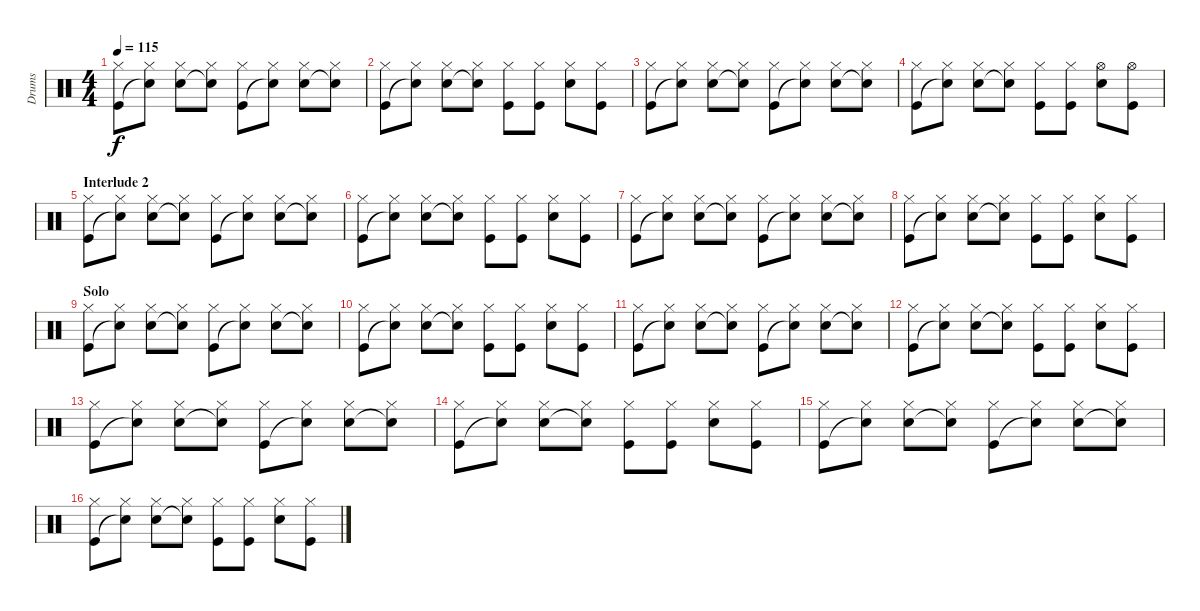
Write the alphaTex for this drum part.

\track ("Drums" "Drums") {instrument percussion}
\staff {score}
\articulation defaults
\ts (4 4)
\tempo 115
\clef neutral
\ks c
("Hi-Hat (closed)" "Kick (hit)").8{dy f} ("Hi-Hat (closed)" "Snare (hit)"{t}).8 ("Hi-Hat (closed)" "Snare (hit) 2").8 ("Hi-Hat (closed)" "Snare (hit)"{t}).8 ("Hi-Hat (closed)" "Kick (hit)").8 ("Hi-Hat (closed)" "Snare (hit)"{t}).8 ("Hi-Hat (closed)" "Snare (hit) 2").8 ("Hi-Hat (closed)" "Snare (hit)"{t}).8 |
("Hi-Hat (closed)" "Kick (hit)").8 ("Hi-Hat (closed)" "Snare (hit)"{t}).8 ("Hi-Hat (closed)" "Snare (hit) 2").8 ("Hi-Hat (closed)" "Snare (hit)"{t}).8 ("Hi-Hat (closed)" "Kick (hit)").8 ("Hi-Hat (closed)" "Kick (hit)").8 ("Hi-Hat (closed)" "Snare (hit) 2").8 ("Hi-Hat (closed)" "Kick (hit)").8 |
("Hi-Hat (closed)" "Kick (hit)").8 ("Hi-Hat (closed)" "Snare (hit)"{t}).8 ("Hi-Hat (closed)" "Snare (hit) 2").8 ("Hi-Hat (closed)" "Snare (hit)"{t}).8 ("Hi-Hat (closed)" "Kick (hit)").8 ("Hi-Hat (closed)" "Snare (hit)"{t}).8 ("Hi-Hat (closed)" "Snare (hit) 2").8 ("Hi-Hat (closed)" "Snare (hit)"{t}).8 |
("Hi-Hat (closed)" "Kick (hit)").8 ("Hi-Hat (closed)" "Snare (hit)"{t}).8 ("Hi-Hat (closed)" "Snare (hit) 2").8 ("Hi-Hat (closed)" "Snare (hit)"{t}).8 ("Hi-Hat (closed)" "Kick (hit)").8 ("Hi-Hat (closed)" "Kick (hit)").8 ("Hi-Hat (open)" "Snare (hit) 2").8 ("Hi-Hat (open)" "Kick (hit)").8 |
\section ("" "Interlude 2")
("Hi-Hat (closed)" "Kick (hit)").8 ("Hi-Hat (closed)" "Snare (hit)"{t}).8 ("Hi-Hat (closed)" "Snare (hit) 2").8 ("Hi-Hat (closed)" "Snare (hit)"{t}).8 ("Hi-Hat (closed)" "Kick (hit)").8 ("Hi-Hat (closed)" "Snare (hit)"{t}).8 ("Hi-Hat (closed)" "Snare (hit) 2").8 ("Hi-Hat (closed)" "Snare (hit)"{t}).8 |
("Hi-Hat (closed)" "Kick (hit)").8 ("Hi-Hat (closed)" "Snare (hit)"{t}).8 ("Hi-Hat (closed)" "Snare (hit) 2").8 ("Hi-Hat (closed)" "Snare (hit)"{t}).8 ("Hi-Hat (closed)" "Kick (hit)").8 ("Hi-Hat (closed)" "Kick (hit)").8 ("Hi-Hat (closed)" "Snare (hit) 2").8 ("Hi-Hat (closed)" "Kick (hit)").8 |
("Hi-Hat (closed)" "Kick (hit)").8 ("Hi-Hat (closed)" "Snare (hit)"{t}).8 ("Hi-Hat (closed)" "Snare (hit) 2").8 ("Hi-Hat (closed)" "Snare (hit)"{t}).8 ("Hi-Hat (closed)" "Kick (hit)").8 ("Hi-Hat (closed)" "Snare (hit)"{t}).8 ("Hi-Hat (closed)" "Snare (hit) 2").8 ("Hi-Hat (closed)" "Snare (hit)"{t}).8 |
("Hi-Hat (closed)" "Kick (hit)").8 ("Hi-Hat (closed)" "Snare (hit)"{t}).8 ("Hi-Hat (closed)" "Snare (hit) 2").8 ("Hi-Hat (closed)" "Snare (hit)"{t}).8 ("Hi-Hat (closed)" "Kick (hit)").8 ("Hi-Hat (closed)" "Kick (hit)").8 ("Hi-Hat (closed)" "Snare (hit) 2").8 ("Hi-Hat (closed)" "Kick (hit)").8 |
\section ("" "Solo")
("Hi-Hat (closed)" "Kick (hit)").8 ("Hi-Hat (closed)" "Snare (hit)"{t}).8 ("Hi-Hat (closed)" "Snare (hit) 2").8 ("Hi-Hat (closed)" "Snare (hit)"{t}).8 ("Hi-Hat (closed)" "Kick (hit)").8 ("Hi-Hat (closed)" "Snare (hit)"{t}).8 ("Hi-Hat (closed)" "Snare (hit) 2").8 ("Hi-Hat (closed)" "Snare (hit)"{t}).8 |
("Hi-Hat (closed)" "Kick (hit)").8 ("Hi-Hat (closed)" "Snare (hit)"{t}).8 ("Hi-Hat (closed)" "Snare (hit) 2").8 ("Hi-Hat (closed)" "Snare (hit)"{t}).8 ("Hi-Hat (closed)" "Kick (hit)").8 ("Hi-Hat (closed)" "Kick (hit)").8 ("Hi-Hat (closed)" "Snare (hit) 2").8 ("Hi-Hat (closed)" "Kick (hit)").8 |
("Hi-Hat (closed)" "Kick (hit)").8 ("Hi-Hat (closed)" "Snare (hit)"{t}).8 ("Hi-Hat (closed)" "Snare (hit) 2").8 ("Hi-Hat (closed)" "Snare (hit)"{t}).8 ("Hi-Hat (closed)" "Kick (hit)").8 ("Hi-Hat (closed)" "Snare (hit)"{t}).8 ("Hi-Hat (closed)" "Snare (hit) 2").8 ("Hi-Hat (closed)" "Snare (hit)"{t}).8 |
("Hi-Hat (closed)" "Kick (hit)").8 ("Hi-Hat (closed)" "Snare (hit)"{t}).8 ("Hi-Hat (closed)" "Snare (hit) 2").8 ("Hi-Hat (closed)" "Snare (hit)"{t}).8 ("Hi-Hat (closed)" "Kick (hit)").8 ("Hi-Hat (closed)" "Kick (hit)").8 ("Hi-Hat (closed)" "Snare (hit) 2").8 ("Hi-Hat (closed)" "Kick (hit)").8 |
("Hi-Hat (closed)" "Kick (hit)").8 ("Hi-Hat (closed)" "Snare (hit)"{t}).8 ("Hi-Hat (closed)" "Snare (hit) 2").8 ("Hi-Hat (closed)" "Snare (hit)"{t}).8 ("Hi-Hat (closed)" "Kick (hit)").8 ("Hi-Hat (closed)" "Snare (hit)"{t}).8 ("Hi-Hat (closed)" "Snare (hit) 2").8 ("Hi-Hat (closed)" "Snare (hit)"{t}).8 |
("Hi-Hat (closed)" "Kick (hit)").8 ("Hi-Hat (closed)" "Snare (hit)"{t}).8 ("Hi-Hat (closed)" "Snare (hit) 2").8 ("Hi-Hat (closed)" "Snare (hit)"{t}).8 ("Hi-Hat (closed)" "Kick (hit)").8 ("Hi-Hat (closed)" "Kick (hit)").8 ("Hi-Hat (closed)" "Snare (hit) 2").8 ("Hi-Hat (closed)" "Kick (hit)").8 |
("Hi-Hat (closed)" "Kick (hit)").8 ("Hi-Hat (closed)" "Snare (hit)"{t}).8 ("Hi-Hat (closed)" "Snare (hit) 2").8 ("Hi-Hat (closed)" "Snare (hit)"{t}).8 ("Hi-Hat (closed)" "Kick (hit)").8 ("Hi-Hat (closed)" "Snare (hit)"{t}).8 ("Hi-Hat (closed)" "Snare (hit) 2").8 ("Hi-Hat (closed)" "Snare (hit)"{t}).8 |
("Hi-Hat (closed)" "Kick (hit)").8 ("Hi-Hat (closed)" "Snare (hit)"{t}).8 ("Hi-Hat (closed)" "Snare (hit) 2").8 ("Hi-Hat (closed)" "Snare (hit)"{t}).8 ("Hi-Hat (closed)" "Kick (hit)").8 ("Hi-Hat (closed)" "Kick (hit)").8 ("Hi-Hat (closed)" "Snare (hit) 2").8 ("Hi-Hat (closed)" "Kick (hit)").8
